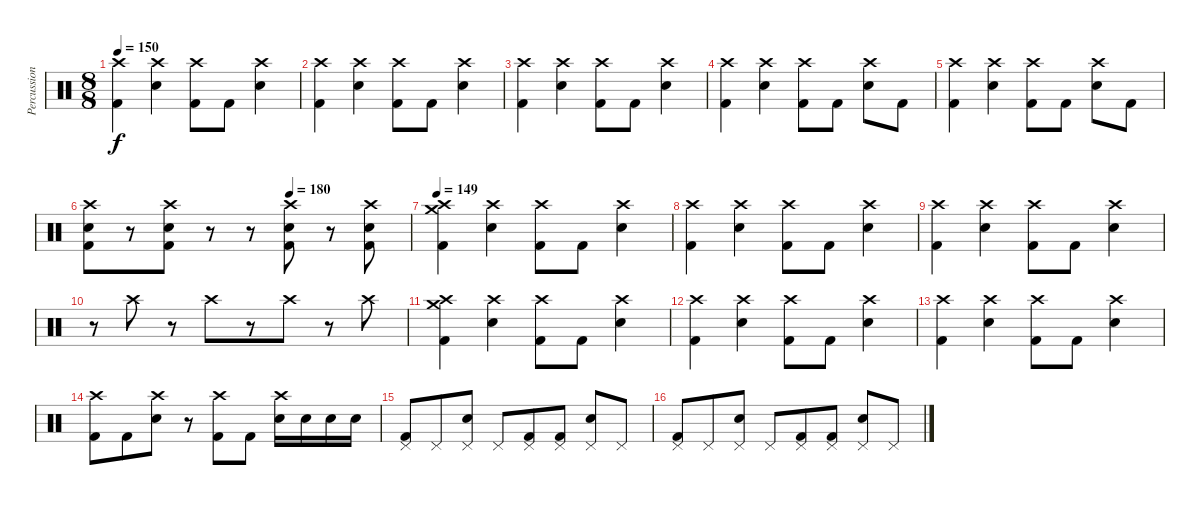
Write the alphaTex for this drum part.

\track ("Percussion" "Percussion") {instrument percussion}
\staff {score}
\articulation defaults
\ts (8 8)
\tempo 150
\clef neutral
\ks c
("Crash high (hit)" "Kick (hit) 2").4{dy f} ("Crash high (hit)" "Snare (hit) 2").4 ("Crash high (hit)" "Kick (hit) 2").8 "Kick (hit) 2".8 ("Crash high (hit)" "Snare (hit) 2").4 |
("Crash high (hit)" "Kick (hit) 2").4 ("Crash high (hit)" "Snare (hit) 2").4 ("Crash high (hit)" "Kick (hit) 2").8 "Kick (hit) 2".8 ("Crash high (hit)" "Snare (hit) 2").4 |
("Crash high (hit)" "Kick (hit) 2").4 ("Crash high (hit)" "Snare (hit) 2").4 ("Crash high (hit)" "Kick (hit) 2").8 "Kick (hit) 2".8 ("Crash high (hit)" "Snare (hit) 2").4 |
("Crash high (hit)" "Kick (hit) 2").4 ("Crash high (hit)" "Snare (hit) 2").4 ("Crash high (hit)" "Kick (hit) 2").8 "Kick (hit) 2".8 ("Crash high (hit)" "Snare (hit) 2").8 "Kick (hit) 2".8 |
("Crash high (hit)" "Kick (hit) 2").4 ("Crash high (hit)" "Snare (hit) 2").4 ("Crash high (hit)" "Kick (hit) 2").8 "Kick (hit) 2".8 ("Crash high (hit)" "Snare (hit) 2").8 "Kick (hit) 2".8 |
\tempo (180 0.625)
("Kick (hit) 2" "Snare (hit) 2" "Crash high (hit)").8 r.8 ("Kick (hit) 2" "Snare (hit) 2" "Crash high (hit)").8 r.8 r.8 ("Kick (hit) 2" "Snare (hit) 2" "Crash high (hit)").8 r.8 ("Kick (hit) 2" "Snare (hit) 2" "Crash high (hit)").8 |
\tempo 149
("Crash high (hit)" "Crash medium (hit)" "Kick (hit) 2").4 ("Crash high (hit)" "Snare (hit) 2").4 ("Crash high (hit)" "Kick (hit) 2").8 "Kick (hit) 2".8 ("Crash high (hit)" "Snare (hit) 2").4 |
("Crash high (hit)" "Kick (hit) 2").4 ("Crash high (hit)" "Snare (hit) 2").4 ("Crash high (hit)" "Kick (hit) 2").8 "Kick (hit) 2".8 ("Crash high (hit)" "Snare (hit) 2").4 |
("Crash high (hit)" "Kick (hit) 2").4 ("Crash high (hit)" "Snare (hit) 2").4 ("Crash high (hit)" "Kick (hit) 2").8 "Kick (hit) 2".8 ("Crash high (hit)" "Snare (hit) 2").4 |
r.8 "Crash high (hit)".8 r.8 "Crash high (hit)".8 r.8 "Crash high (hit)".8 r.8 "Crash high (hit)".8 |
("Crash high (hit)" "Crash medium (hit)" "Kick (hit) 2").4 ("Crash high (hit)" "Snare (hit) 2").4 ("Crash high (hit)" "Kick (hit) 2").8 "Kick (hit) 2".8 ("Crash high (hit)" "Snare (hit) 2").4 |
("Crash high (hit)" "Kick (hit) 2").4 ("Crash high (hit)" "Snare (hit) 2").4 ("Crash high (hit)" "Kick (hit) 2").8 "Kick (hit) 2".8 ("Crash high (hit)" "Snare (hit) 2").4 |
("Crash high (hit)" "Kick (hit) 2").4 ("Crash high (hit)" "Snare (hit) 2").4 ("Crash high (hit)" "Kick (hit) 2").8 "Kick (hit) 2".8 ("Crash high (hit)" "Snare (hit) 2").4 |
("Crash high (hit)" "Kick (hit) 2").8 "Kick (hit) 2".8 ("Crash high (hit)" "Snare (hit) 2").8 r.8 ("Crash high (hit)" "Kick (hit) 2").8 "Kick (hit) 2".8 ("Crash high (hit)" "Snare (hit) 2").16 "Snare (hit) 2".16 "Snare (hit) 2".16 "Snare (hit) 2".16 |
("Pedal Hi-Hat (hit)" "Kick (hit) 2").8 "Pedal Hi-Hat (hit)".8 ("Pedal Hi-Hat (hit)" "Snare (hit) 2").8 "Pedal Hi-Hat (hit)".8 ("Pedal Hi-Hat (hit)" "Kick (hit) 2").8 ("Pedal Hi-Hat (hit)" "Kick (hit) 2").8 ("Pedal Hi-Hat (hit)" "Snare (hit) 2").8 "Pedal Hi-Hat (hit)".8 |
("Pedal Hi-Hat (hit)" "Kick (hit) 2").8 "Pedal Hi-Hat (hit)".8 ("Pedal Hi-Hat (hit)" "Snare (hit) 2").8 "Pedal Hi-Hat (hit)".8 ("Pedal Hi-Hat (hit)" "Kick (hit) 2").8 ("Pedal Hi-Hat (hit)" "Kick (hit) 2").8 ("Pedal Hi-Hat (hit)" "Snare (hit) 2").8 "Pedal Hi-Hat (hit)".8
